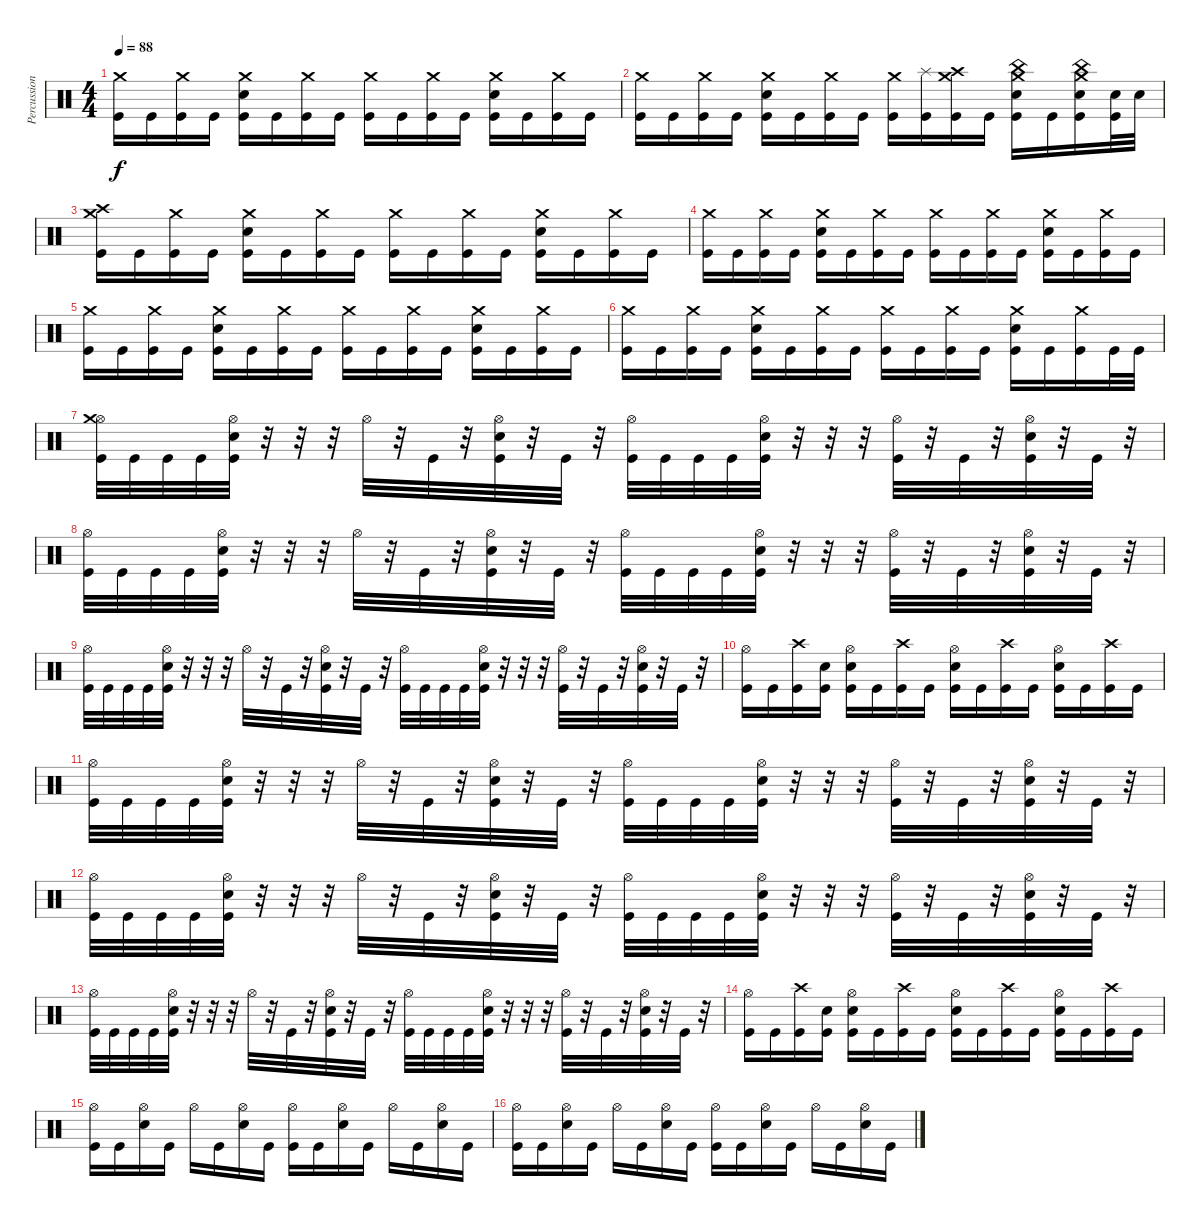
\track ("Percussion" "Percussion") {instrument percussion}
\staff {score}
\articulation defaults
\ts (4 4)
\tempo 88
\clef neutral
\ks c
("Crash medium (hit)" "Kick (hit)").16{dy f} "Kick (hit)".16 ("Crash medium (hit)" "Kick (hit)").16 "Kick (hit)".16 ("Crash medium (hit)" "Electric Snare (hit)" "Kick (hit)").16 "Kick (hit)".16 ("Crash medium (hit)" "Kick (hit)").16 "Kick (hit)".16 ("Crash medium (hit)" "Kick (hit)").16 "Kick (hit)".16 ("Crash medium (hit)" "Kick (hit)").16 "Kick (hit)".16 ("Crash medium (hit)" "Electric Snare (hit)" "Kick (hit)").16 "Kick (hit)".16 ("Crash medium (hit)" "Kick (hit)").16 "Kick (hit)".16 |
("Crash medium (hit)" "Kick (hit)").16 "Kick (hit)".16 ("Crash medium (hit)" "Kick (hit)").16 "Kick (hit)".16 ("Crash medium (hit)" "Electric Snare (hit)" "Kick (hit)").16 "Kick (hit)".16 ("Crash medium (hit)" "Kick (hit)").16 "Kick (hit)".16 ("Crash medium (hit)" "Kick (hit)").16 ("Splash (hit)" "Kick (hit)").16 ("Crash medium (hit)" "Crash high (hit)" "Kick (hit)").16 "Kick (hit)".16 ("Crash medium (hit)" "China (hit)" "Electric Snare (hit)" "Kick (hit)").16 "Kick (hit)".16 ("Crash medium (hit)" "China (hit)" "Electric Snare (hit)" "Kick (hit)").16 ("Electric Snare (hit)" "Kick (hit)").32 "Electric Snare (hit)".32 |
("Crash medium (hit)" "Crash high (hit)" "Kick (hit)").16 "Kick (hit)".16 ("Crash medium (hit)" "Kick (hit)").16 "Kick (hit)".16 ("Crash medium (hit)" "Electric Snare (hit)" "Kick (hit)").16 "Kick (hit)".16 ("Crash medium (hit)" "Kick (hit)").16 "Kick (hit)".16 ("Crash medium (hit)" "Kick (hit)").16 "Kick (hit)".16 ("Crash medium (hit)" "Kick (hit)").16 "Kick (hit)".16 ("Crash medium (hit)" "Electric Snare (hit)" "Kick (hit)").16 "Kick (hit)".16 ("Crash medium (hit)" "Kick (hit)").16 "Kick (hit)".16 |
("Crash medium (hit)" "Kick (hit)").16 "Kick (hit)".16 ("Crash medium (hit)" "Kick (hit)").16 "Kick (hit)".16 ("Crash medium (hit)" "Electric Snare (hit)" "Kick (hit)").16 "Kick (hit)".16 ("Crash medium (hit)" "Kick (hit)").16 "Kick (hit)".16 ("Crash medium (hit)" "Kick (hit)").16 "Kick (hit)".16 ("Crash medium (hit)" "Kick (hit)").16 "Kick (hit)".16 ("Crash medium (hit)" "Electric Snare (hit)" "Kick (hit)").16 "Kick (hit)".16 ("Crash medium (hit)" "Kick (hit)").16 "Kick (hit)".16 |
("Crash medium (hit)" "Kick (hit)").16 "Kick (hit)".16 ("Crash medium (hit)" "Kick (hit)").16 "Kick (hit)".16 ("Crash medium (hit)" "Electric Snare (hit)" "Kick (hit)").16 "Kick (hit)".16 ("Crash medium (hit)" "Kick (hit)").16 "Kick (hit)".16 ("Crash medium (hit)" "Kick (hit)").16 "Kick (hit)".16 ("Crash medium (hit)" "Kick (hit)").16 "Kick (hit)".16 ("Crash medium (hit)" "Electric Snare (hit)" "Kick (hit)").16 "Kick (hit)".16 ("Crash medium (hit)" "Kick (hit)").16 "Kick (hit)".16 |
("Crash medium (hit)" "Kick (hit)").16 "Kick (hit)".16 ("Crash medium (hit)" "Kick (hit)").16 "Kick (hit)".16 ("Crash medium (hit)" "Electric Snare (hit)" "Kick (hit)").16 "Kick (hit)".16 ("Crash medium (hit)" "Kick (hit)").16 "Kick (hit)".16 ("Crash medium (hit)" "Kick (hit)").16 "Kick (hit)".16 ("Crash medium (hit)" "Kick (hit)").16 "Kick (hit)".16 ("Crash medium (hit)" "Electric Snare (hit)" "Kick (hit)").16 "Kick (hit)".16 ("Crash medium (hit)" "Kick (hit)").16 "Kick (hit)".32 "Kick (hit)".32 |
("Hi-Hat (open)" "Crash medium (hit)" "Kick (hit)").32 "Kick (hit)".32 "Kick (hit)".32 "Kick (hit)".32 ("Hi-Hat (open)" "Electric Snare (hit)" "Kick (hit)").32 r.32 r.32 r.32 "Hi-Hat (open)".32 r.32 "Kick (hit)".32 r.32 ("Hi-Hat (open)" "Electric Snare (hit)" "Kick (hit)").32 r.32 "Kick (hit)".32 r.32 ("Hi-Hat (open)" "Kick (hit)").32 "Kick (hit)".32 "Kick (hit)".32 "Kick (hit)".32 ("Hi-Hat (open)" "Electric Snare (hit)" "Kick (hit)").32 r.32 r.32 r.32 ("Hi-Hat (open)" "Kick (hit)").32 r.32 "Kick (hit)".32 r.32 ("Hi-Hat (open)" "Electric Snare (hit)" "Kick (hit)").32 r.32 "Kick (hit)".32 r.32 |
("Hi-Hat (open)" "Kick (hit)").32 "Kick (hit)".32 "Kick (hit)".32 "Kick (hit)".32 ("Hi-Hat (open)" "Electric Snare (hit)" "Kick (hit)").32 r.32 r.32 r.32 "Hi-Hat (open)".32 r.32 "Kick (hit)".32 r.32 ("Hi-Hat (open)" "Electric Snare (hit)" "Kick (hit)").32 r.32 "Kick (hit)".32 r.32 ("Hi-Hat (open)" "Kick (hit)").32 "Kick (hit)".32 "Kick (hit)".32 "Kick (hit)".32 ("Hi-Hat (open)" "Electric Snare (hit)" "Kick (hit)").32 r.32 r.32 r.32 ("Hi-Hat (open)" "Kick (hit)").32 r.32 "Kick (hit)".32 r.32 ("Hi-Hat (open)" "Electric Snare (hit)" "Kick (hit)").32 r.32 "Kick (hit)".32 r.32 |
("Hi-Hat (open)" "Kick (hit)").32 "Kick (hit)".32 "Kick (hit)".32 "Kick (hit)".32 ("Hi-Hat (open)" "Electric Snare (hit)" "Kick (hit)").32 r.32 r.32 r.32 "Hi-Hat (open)".32 r.32 "Kick (hit)".32 r.32 ("Hi-Hat (open)" "Electric Snare (hit)" "Kick (hit)").32 r.32 "Kick (hit)".32 r.32 ("Hi-Hat (open)" "Kick (hit)").32 "Kick (hit)".32 "Kick (hit)".32 "Kick (hit)".32 ("Hi-Hat (open)" "Electric Snare (hit)" "Kick (hit)").32 r.32 r.32 r.32 ("Hi-Hat (open)" "Kick (hit)").32 r.32 "Kick (hit)".32 r.32 ("Hi-Hat (open)" "Electric Snare (hit)" "Kick (hit)").32 r.32 "Kick (hit)".32 r.32 |
("Hi-Hat (open)" "Kick (hit)").16 "Kick (hit)".16 ("Crash high (hit)" "Kick (hit)").16 ("Electric Snare (hit)" "Kick (hit)").16 ("Hi-Hat (open)" "Electric Snare (hit)" "Kick (hit)").16 "Kick (hit)".16 ("Crash high (hit)" "Kick (hit)").16 "Kick (hit)".16 ("Hi-Hat (open)" "Electric Snare (hit)" "Kick (hit)").16 "Kick (hit)".16 ("Crash high (hit)" "Kick (hit)").16 "Kick (hit)".16 ("Hi-Hat (open)" "Electric Snare (hit)" "Kick (hit)").16 "Kick (hit)".16 ("Crash high (hit)" "Kick (hit)").16 "Kick (hit)".16 |
("Hi-Hat (open)" "Kick (hit)").32 "Kick (hit)".32 "Kick (hit)".32 "Kick (hit)".32 ("Hi-Hat (open)" "Electric Snare (hit)" "Kick (hit)").32 r.32 r.32 r.32 "Hi-Hat (open)".32 r.32 "Kick (hit)".32 r.32 ("Hi-Hat (open)" "Electric Snare (hit)" "Kick (hit)").32 r.32 "Kick (hit)".32 r.32 ("Hi-Hat (open)" "Kick (hit)").32 "Kick (hit)".32 "Kick (hit)".32 "Kick (hit)".32 ("Hi-Hat (open)" "Electric Snare (hit)" "Kick (hit)").32 r.32 r.32 r.32 ("Hi-Hat (open)" "Kick (hit)").32 r.32 "Kick (hit)".32 r.32 ("Hi-Hat (open)" "Electric Snare (hit)" "Kick (hit)").32 r.32 "Kick (hit)".32 r.32 |
("Hi-Hat (open)" "Kick (hit)").32 "Kick (hit)".32 "Kick (hit)".32 "Kick (hit)".32 ("Hi-Hat (open)" "Electric Snare (hit)" "Kick (hit)").32 r.32 r.32 r.32 "Hi-Hat (open)".32 r.32 "Kick (hit)".32 r.32 ("Hi-Hat (open)" "Electric Snare (hit)" "Kick (hit)").32 r.32 "Kick (hit)".32 r.32 ("Hi-Hat (open)" "Kick (hit)").32 "Kick (hit)".32 "Kick (hit)".32 "Kick (hit)".32 ("Hi-Hat (open)" "Electric Snare (hit)" "Kick (hit)").32 r.32 r.32 r.32 ("Hi-Hat (open)" "Kick (hit)").32 r.32 "Kick (hit)".32 r.32 ("Hi-Hat (open)" "Electric Snare (hit)" "Kick (hit)").32 r.32 "Kick (hit)".32 r.32 |
("Hi-Hat (open)" "Kick (hit)").32 "Kick (hit)".32 "Kick (hit)".32 "Kick (hit)".32 ("Hi-Hat (open)" "Electric Snare (hit)" "Kick (hit)").32 r.32 r.32 r.32 "Hi-Hat (open)".32 r.32 "Kick (hit)".32 r.32 ("Hi-Hat (open)" "Electric Snare (hit)" "Kick (hit)").32 r.32 "Kick (hit)".32 r.32 ("Hi-Hat (open)" "Kick (hit)").32 "Kick (hit)".32 "Kick (hit)".32 "Kick (hit)".32 ("Hi-Hat (open)" "Electric Snare (hit)" "Kick (hit)").32 r.32 r.32 r.32 ("Hi-Hat (open)" "Kick (hit)").32 r.32 "Kick (hit)".32 r.32 ("Hi-Hat (open)" "Electric Snare (hit)" "Kick (hit)").32 r.32 "Kick (hit)".32 r.32 |
("Hi-Hat (open)" "Kick (hit)").16 "Kick (hit)".16 ("Crash high (hit)" "Kick (hit)").16 ("Electric Snare (hit)" "Kick (hit)").16 ("Hi-Hat (open)" "Electric Snare (hit)" "Kick (hit)").16 "Kick (hit)".16 ("Crash high (hit)" "Kick (hit)").16 "Kick (hit)".16 ("Hi-Hat (open)" "Electric Snare (hit)" "Kick (hit)").16 "Kick (hit)".16 ("Crash high (hit)" "Kick (hit)").16 "Kick (hit)".16 ("Hi-Hat (open)" "Electric Snare (hit)" "Kick (hit)").16 "Kick (hit)".16 ("Crash high (hit)" "Kick (hit)").16 "Kick (hit)".16 |
("Hi-Hat (open)" "Kick (hit)").16 "Kick (hit)".16 ("Hi-Hat (open)" "Electric Snare (hit)").16 "Kick (hit)".16 "Hi-Hat (open)".16 "Kick (hit)".16 ("Hi-Hat (open)" "Electric Snare (hit)").16 "Kick (hit)".16 ("Hi-Hat (open)" "Kick (hit)").16 "Kick (hit)".16 ("Hi-Hat (open)" "Electric Snare (hit)").16 "Kick (hit)".16 "Hi-Hat (open)".16 "Kick (hit)".16 ("Hi-Hat (open)" "Electric Snare (hit)").16 "Kick (hit)".16 |
("Hi-Hat (open)" "Kick (hit)").16 "Kick (hit)".16 ("Hi-Hat (open)" "Electric Snare (hit)").16 "Kick (hit)".16 "Hi-Hat (open)".16 "Kick (hit)".16 ("Hi-Hat (open)" "Electric Snare (hit)").16 "Kick (hit)".16 ("Hi-Hat (open)" "Kick (hit)").16 "Kick (hit)".16 ("Hi-Hat (open)" "Electric Snare (hit)").16 "Kick (hit)".16 "Hi-Hat (open)".16 "Kick (hit)".16 ("Hi-Hat (open)" "Electric Snare (hit)").16 "Kick (hit)".16
